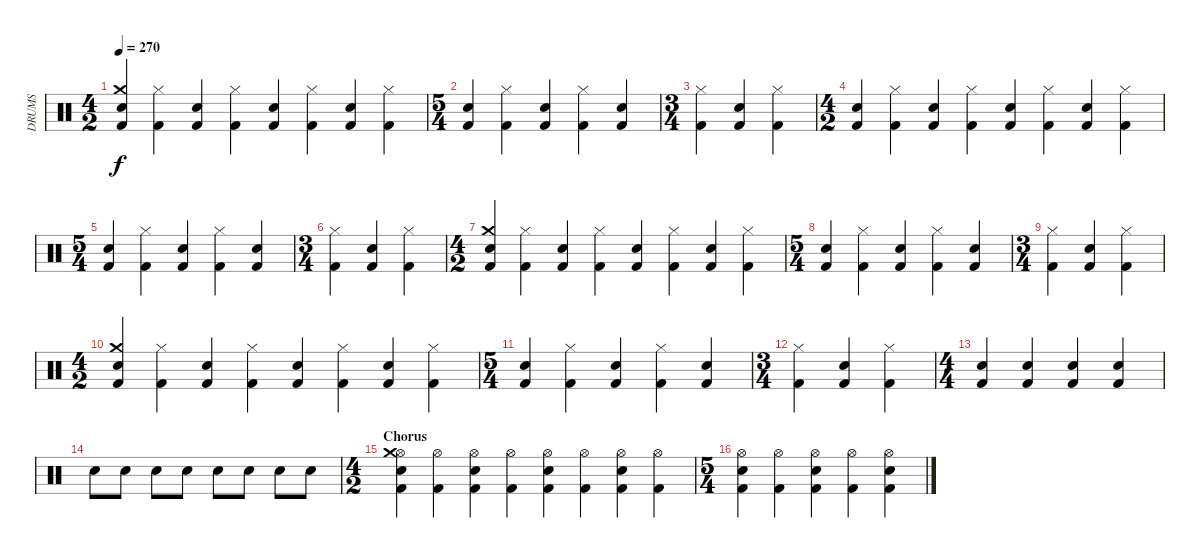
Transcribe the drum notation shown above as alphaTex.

\track ("DRUMS" "DRUMS") {instrument percussion}
\staff {score}
\articulation defaults
\ts (4 2)
\tempo 270
\clef neutral
\ks c
("Snare (hit) 2" "Crash medium (hit)" "Kick (hit) 2").4{dy f} ("Hi-Hat (closed)" "Kick (hit) 2").4 ("Snare (hit) 2" "Kick (hit) 2").4 ("Hi-Hat (closed)" "Kick (hit) 2").4 ("Snare (hit) 2" "Kick (hit) 2").4 ("Hi-Hat (closed)" "Kick (hit) 2").4 ("Snare (hit) 2" "Kick (hit) 2").4 ("Hi-Hat (closed)" "Kick (hit) 2").4 |
\ts (5 4)
("Snare (hit) 2" "Kick (hit) 2").4 ("Hi-Hat (closed)" "Kick (hit) 2").4 ("Snare (hit) 2" "Kick (hit) 2").4 ("Hi-Hat (closed)" "Kick (hit) 2").4 ("Snare (hit) 2" "Kick (hit) 2").4 |
\ts (3 4)
("Hi-Hat (closed)" "Kick (hit) 2").4 ("Snare (hit) 2" "Kick (hit) 2").4 ("Hi-Hat (closed)" "Kick (hit) 2").4 |
\ts (4 2)
("Snare (hit) 2" "Kick (hit) 2").4 ("Hi-Hat (closed)" "Kick (hit) 2").4 ("Snare (hit) 2" "Kick (hit) 2").4 ("Hi-Hat (closed)" "Kick (hit) 2").4 ("Snare (hit) 2" "Kick (hit) 2").4 ("Hi-Hat (closed)" "Kick (hit) 2").4 ("Snare (hit) 2" "Kick (hit) 2").4 ("Hi-Hat (closed)" "Kick (hit) 2").4 |
\ts (5 4)
("Snare (hit) 2" "Kick (hit) 2").4 ("Hi-Hat (closed)" "Kick (hit) 2").4 ("Snare (hit) 2" "Kick (hit) 2").4 ("Hi-Hat (closed)" "Kick (hit) 2").4 ("Snare (hit) 2" "Kick (hit) 2").4 |
\ts (3 4)
("Hi-Hat (closed)" "Kick (hit) 2").4 ("Snare (hit) 2" "Kick (hit) 2").4 ("Hi-Hat (closed)" "Kick (hit) 2").4 |
\ts (4 2)
("Snare (hit) 2" "Crash medium (hit)" "Kick (hit) 2").4 ("Hi-Hat (closed)" "Kick (hit) 2").4 ("Snare (hit) 2" "Kick (hit) 2").4 ("Hi-Hat (closed)" "Kick (hit) 2").4 ("Snare (hit) 2" "Kick (hit) 2").4 ("Hi-Hat (closed)" "Kick (hit) 2").4 ("Snare (hit) 2" "Kick (hit) 2").4 ("Hi-Hat (closed)" "Kick (hit) 2").4 |
\ts (5 4)
("Snare (hit) 2" "Kick (hit) 2").4 ("Hi-Hat (closed)" "Kick (hit) 2").4 ("Snare (hit) 2" "Kick (hit) 2").4 ("Hi-Hat (closed)" "Kick (hit) 2").4 ("Snare (hit) 2" "Kick (hit) 2").4 |
\ts (3 4)
("Hi-Hat (closed)" "Kick (hit) 2").4 ("Snare (hit) 2" "Kick (hit) 2").4 ("Hi-Hat (closed)" "Kick (hit) 2").4 |
\ts (4 2)
("Snare (hit) 2" "Crash medium (hit)" "Kick (hit) 2").4 ("Hi-Hat (closed)" "Kick (hit) 2").4 ("Snare (hit) 2" "Kick (hit) 2").4 ("Hi-Hat (closed)" "Kick (hit) 2").4 ("Snare (hit) 2" "Kick (hit) 2").4 ("Hi-Hat (closed)" "Kick (hit) 2").4 ("Snare (hit) 2" "Kick (hit) 2").4 ("Hi-Hat (closed)" "Kick (hit) 2").4 |
\ts (5 4)
("Snare (hit) 2" "Kick (hit) 2").4 ("Hi-Hat (closed)" "Kick (hit) 2").4 ("Snare (hit) 2" "Kick (hit) 2").4 ("Hi-Hat (closed)" "Kick (hit) 2").4 ("Snare (hit) 2" "Kick (hit) 2").4 |
\ts (3 4)
("Hi-Hat (closed)" "Kick (hit) 2").4 ("Snare (hit) 2" "Kick (hit) 2").4 ("Hi-Hat (closed)" "Kick (hit) 2").4 |
\ts (4 4)
("Snare (hit) 2" "Kick (hit) 2").4 ("Snare (hit) 2" "Kick (hit) 2").4 ("Snare (hit) 2" "Kick (hit) 2").4 ("Snare (hit) 2" "Kick (hit) 2").4 |
"Snare (hit) 2".8 "Snare (hit) 2".8 "Snare (hit) 2".8 "Snare (hit) 2".8 "Snare (hit) 2".8 "Snare (hit) 2".8 "Snare (hit) 2".8 "Snare (hit) 2".8 |
\ts (4 2)
\section ("" "Chorus")
("Hi-Hat (open)" "Snare (hit) 2" "Crash medium (hit)" "Kick (hit) 2").4 ("Hi-Hat (open)" "Kick (hit) 2").4 ("Hi-Hat (open)" "Snare (hit) 2" "Kick (hit) 2").4 ("Hi-Hat (open)" "Kick (hit) 2").4 ("Hi-Hat (open)" "Snare (hit) 2" "Kick (hit) 2").4 ("Hi-Hat (open)" "Kick (hit) 2").4 ("Hi-Hat (open)" "Snare (hit) 2" "Kick (hit) 2").4 ("Hi-Hat (open)" "Kick (hit) 2").4 |
\ts (5 4)
("Hi-Hat (open)" "Snare (hit) 2" "Kick (hit) 2").4 ("Hi-Hat (open)" "Kick (hit) 2").4 ("Hi-Hat (open)" "Snare (hit) 2" "Kick (hit) 2").4 ("Hi-Hat (open)" "Kick (hit) 2").4 ("Hi-Hat (open)" "Snare (hit) 2" "Kick (hit) 2").4
